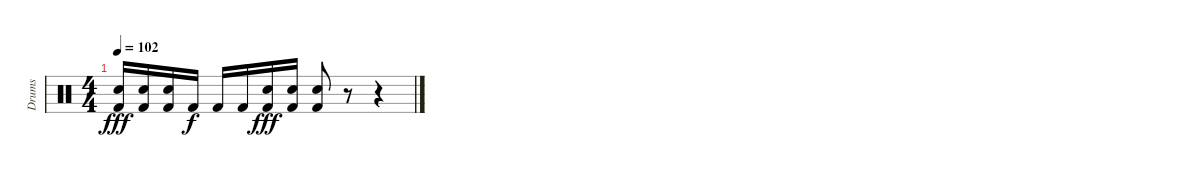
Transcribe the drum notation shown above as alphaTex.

\track ("Drums" "Drums") {instrument percussion}
\staff {score}
\articulation defaults
\ts (4 4)
\tempo 102
\clef neutral
\ks c
("Kick (hit) 2" "Electric Snare (hit)").16{dy fff} ("Kick (hit) 2" "Electric Snare (hit)").16 ("Kick (hit) 2" "Electric Snare (hit)").16 "Kick (hit) 2".16{dy f} "Kick (hit) 2".16 "Kick (hit) 2".16 ("Kick (hit) 2" "Electric Snare (hit)").16{dy fff} ("Kick (hit) 2" "Electric Snare (hit)").16 ("Kick (hit) 2" "Electric Snare (hit)").8 r.8 r.4
